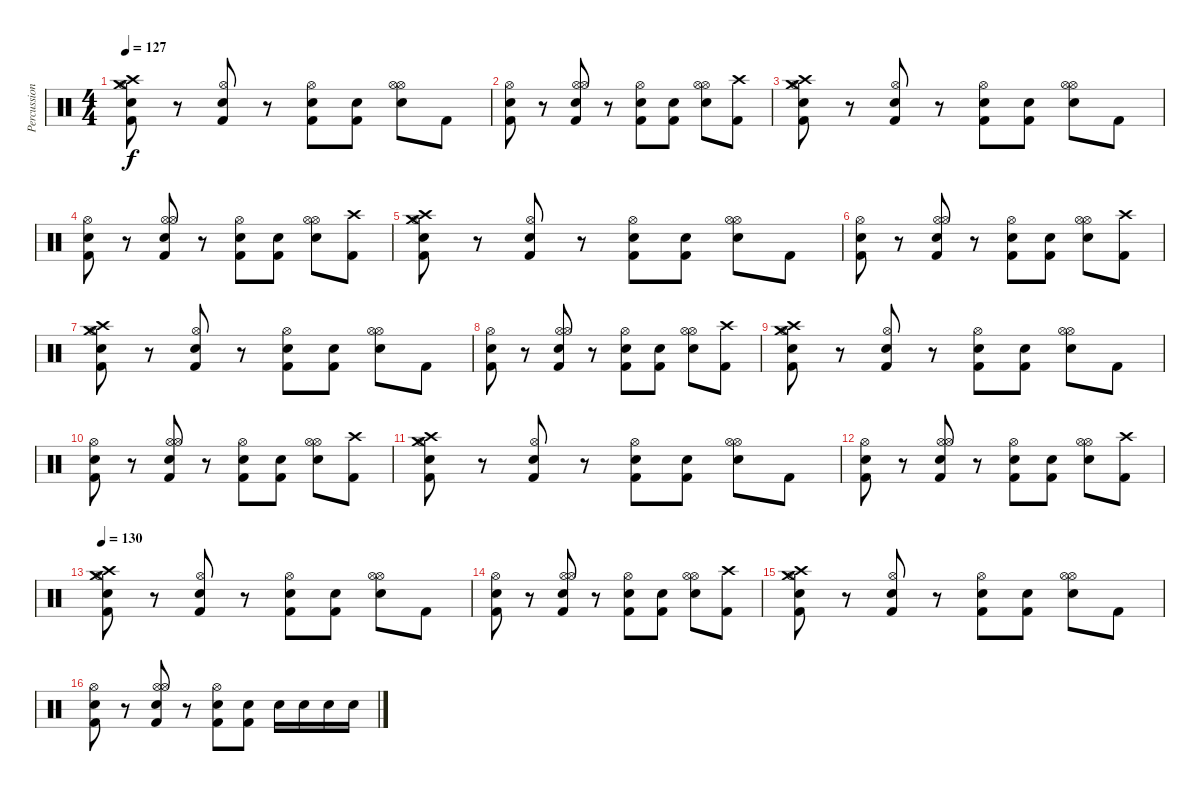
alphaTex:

\track ("Percussion" "Percussion") {instrument percussion}
\staff {score}
\articulation defaults
\ts (4 4)
\tempo 127
\clef neutral
\ks c
("Crash high (hit)" "Crash medium (hit)" "Kick (hit) 2" "Snare (hit) 2" "Hi-Hat (open)").8{dy f} r.8 ("Hi-Hat (open)" "Kick (hit) 2" "Electric Snare (hit)").8 r.8 ("Kick (hit) 2" "Snare (hit) 2" "Hi-Hat (open)").8 ("Kick (hit) 2" "Snare (hit) 2").8 ("Hi-Hat (open)" "Electric Snare (hit)" "Hi-Hat (open)").8 "Kick (hit) 2".8 |
("Kick (hit) 2" "Snare (hit) 2" "Hi-Hat (open)").8 r.8 ("Hi-Hat (open)" "Kick (hit) 2" "Electric Snare (hit)" "Hi-Hat (open)").8 r.8 ("Kick (hit) 2" "Snare (hit) 2" "Hi-Hat (open)").8 ("Kick (hit) 2" "Snare (hit) 2").8 ("Hi-Hat (open)" "Electric Snare (hit)" "Hi-Hat (open)").8 ("Crash high (hit)" "Kick (hit) 2").8 |
("Crash high (hit)" "Crash medium (hit)" "Kick (hit) 2" "Snare (hit) 2" "Hi-Hat (open)").8 r.8 ("Hi-Hat (open)" "Kick (hit) 2" "Electric Snare (hit)").8 r.8 ("Kick (hit) 2" "Snare (hit) 2" "Hi-Hat (open)").8 ("Kick (hit) 2" "Snare (hit) 2").8 ("Hi-Hat (open)" "Electric Snare (hit)" "Hi-Hat (open)").8 "Kick (hit) 2".8 |
("Kick (hit) 2" "Snare (hit) 2" "Hi-Hat (open)").8 r.8 ("Hi-Hat (open)" "Kick (hit) 2" "Electric Snare (hit)" "Hi-Hat (open)").8 r.8 ("Kick (hit) 2" "Snare (hit) 2" "Hi-Hat (open)").8 ("Kick (hit) 2" "Snare (hit) 2").8 ("Hi-Hat (open)" "Electric Snare (hit)" "Hi-Hat (open)").8 ("Crash high (hit)" "Kick (hit) 2").8 |
("Crash high (hit)" "Crash medium (hit)" "Kick (hit) 2" "Snare (hit) 2" "Hi-Hat (open)").8 r.8 ("Hi-Hat (open)" "Kick (hit) 2" "Electric Snare (hit)").8 r.8 ("Kick (hit) 2" "Snare (hit) 2" "Hi-Hat (open)").8 ("Kick (hit) 2" "Snare (hit) 2").8 ("Hi-Hat (open)" "Electric Snare (hit)" "Hi-Hat (open)").8 "Kick (hit) 2".8 |
("Kick (hit) 2" "Snare (hit) 2" "Hi-Hat (open)").8 r.8 ("Hi-Hat (open)" "Kick (hit) 2" "Electric Snare (hit)" "Hi-Hat (open)").8 r.8 ("Kick (hit) 2" "Snare (hit) 2" "Hi-Hat (open)").8 ("Kick (hit) 2" "Snare (hit) 2").8 ("Hi-Hat (open)" "Electric Snare (hit)" "Hi-Hat (open)").8 ("Crash high (hit)" "Kick (hit) 2").8 |
("Crash high (hit)" "Crash medium (hit)" "Kick (hit) 2" "Snare (hit) 2" "Hi-Hat (open)").8 r.8 ("Hi-Hat (open)" "Kick (hit) 2" "Electric Snare (hit)").8 r.8 ("Kick (hit) 2" "Snare (hit) 2" "Hi-Hat (open)").8 ("Kick (hit) 2" "Snare (hit) 2").8 ("Hi-Hat (open)" "Electric Snare (hit)" "Hi-Hat (open)").8 "Kick (hit) 2".8 |
("Kick (hit) 2" "Snare (hit) 2" "Hi-Hat (open)").8 r.8 ("Hi-Hat (open)" "Kick (hit) 2" "Electric Snare (hit)" "Hi-Hat (open)").8 r.8 ("Kick (hit) 2" "Snare (hit) 2" "Hi-Hat (open)").8 ("Kick (hit) 2" "Snare (hit) 2").8 ("Hi-Hat (open)" "Electric Snare (hit)" "Hi-Hat (open)").8 ("Crash high (hit)" "Kick (hit) 2").8 |
("Crash high (hit)" "Crash medium (hit)" "Kick (hit) 2" "Snare (hit) 2" "Hi-Hat (open)").8 r.8 ("Hi-Hat (open)" "Kick (hit) 2" "Electric Snare (hit)").8 r.8 ("Kick (hit) 2" "Snare (hit) 2" "Hi-Hat (open)").8 ("Kick (hit) 2" "Snare (hit) 2").8 ("Hi-Hat (open)" "Electric Snare (hit)" "Hi-Hat (open)").8 "Kick (hit) 2".8 |
("Kick (hit) 2" "Snare (hit) 2" "Hi-Hat (open)").8 r.8 ("Hi-Hat (open)" "Kick (hit) 2" "Electric Snare (hit)" "Hi-Hat (open)").8 r.8 ("Kick (hit) 2" "Snare (hit) 2" "Hi-Hat (open)").8 ("Kick (hit) 2" "Snare (hit) 2").8 ("Hi-Hat (open)" "Electric Snare (hit)" "Hi-Hat (open)").8 ("Crash high (hit)" "Kick (hit) 2").8 |
("Crash high (hit)" "Crash medium (hit)" "Kick (hit) 2" "Snare (hit) 2" "Hi-Hat (open)").8 r.8 ("Hi-Hat (open)" "Kick (hit) 2" "Electric Snare (hit)").8 r.8 ("Kick (hit) 2" "Snare (hit) 2" "Hi-Hat (open)").8 ("Kick (hit) 2" "Snare (hit) 2").8 ("Hi-Hat (open)" "Electric Snare (hit)" "Hi-Hat (open)").8 "Kick (hit) 2".8 |
("Kick (hit) 2" "Snare (hit) 2" "Hi-Hat (open)").8 r.8 ("Hi-Hat (open)" "Kick (hit) 2" "Electric Snare (hit)" "Hi-Hat (open)").8 r.8 ("Kick (hit) 2" "Snare (hit) 2" "Hi-Hat (open)").8 ("Kick (hit) 2" "Snare (hit) 2").8 ("Hi-Hat (open)" "Electric Snare (hit)" "Hi-Hat (open)").8 ("Crash high (hit)" "Kick (hit) 2").8 |
\tempo 130
("Crash high (hit)" "Crash medium (hit)" "Kick (hit) 2" "Snare (hit) 2" "Hi-Hat (open)").8 r.8 ("Hi-Hat (open)" "Kick (hit) 2" "Electric Snare (hit)").8 r.8 ("Kick (hit) 2" "Snare (hit) 2" "Hi-Hat (open)").8 ("Kick (hit) 2" "Snare (hit) 2").8 ("Hi-Hat (open)" "Electric Snare (hit)" "Hi-Hat (open)").8 "Kick (hit) 2".8 |
("Kick (hit) 2" "Snare (hit) 2" "Hi-Hat (open)").8 r.8 ("Hi-Hat (open)" "Kick (hit) 2" "Electric Snare (hit)" "Hi-Hat (open)").8 r.8 ("Kick (hit) 2" "Snare (hit) 2" "Hi-Hat (open)").8 ("Kick (hit) 2" "Snare (hit) 2").8 ("Hi-Hat (open)" "Electric Snare (hit)" "Hi-Hat (open)").8 ("Crash high (hit)" "Kick (hit) 2").8 |
("Crash high (hit)" "Crash medium (hit)" "Kick (hit) 2" "Snare (hit) 2" "Hi-Hat (open)").8 r.8 ("Hi-Hat (open)" "Kick (hit) 2" "Electric Snare (hit)").8 r.8 ("Kick (hit) 2" "Snare (hit) 2" "Hi-Hat (open)").8 ("Kick (hit) 2" "Snare (hit) 2").8 ("Hi-Hat (open)" "Electric Snare (hit)" "Hi-Hat (open)").8 "Kick (hit) 2".8 |
("Kick (hit) 2" "Snare (hit) 2" "Hi-Hat (open)").8 r.8 ("Hi-Hat (open)" "Kick (hit) 2" "Electric Snare (hit)" "Hi-Hat (open)").8 r.8 ("Kick (hit) 2" "Snare (hit) 2" "Hi-Hat (open)").8 ("Kick (hit) 2" "Snare (hit) 2").8 "Electric Snare (hit)".16 "Electric Snare (hit)".16 "Snare (hit) 2".16 "Snare (hit) 2".16
